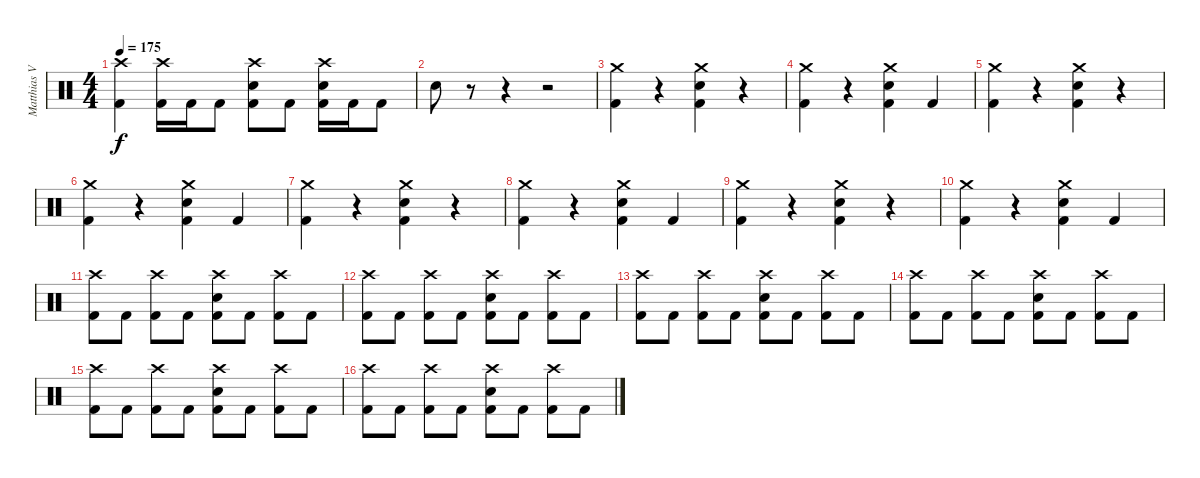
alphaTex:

\track ("Matthias Voigt" "Matthias V") {instrument percussion}
\staff {score}
\articulation defaults
\ts (4 4)
\tempo 175
\clef neutral
\ks c
("Crash high (hit)" "Kick (hit) 2").4{dy f} ("Crash high (hit)" "Kick (hit) 2").16 "Kick (hit) 2".16 "Kick (hit) 2".8 ("Crash high (hit)" "Electric Snare (hit)" "Kick (hit) 2").8 "Kick (hit) 2".8 ("Crash high (hit)" "Electric Snare (hit)" "Kick (hit) 2").16 "Kick (hit) 2".16 "Kick (hit) 2".8 |
"Electric Snare (hit)".8 r.8 r.4 r.2 |
("Crash medium (hit)" "Kick (hit) 2").4 r.4 ("Crash medium (hit)" "Electric Snare (hit)" "Kick (hit) 2").4 r.4 |
("Crash medium (hit)" "Kick (hit) 2").4 r.4 ("Crash medium (hit)" "Electric Snare (hit)" "Kick (hit) 2").4 "Kick (hit) 2".4 |
("Crash medium (hit)" "Kick (hit) 2").4 r.4 ("Crash medium (hit)" "Electric Snare (hit)" "Kick (hit) 2").4 r.4 |
("Crash medium (hit)" "Kick (hit) 2").4 r.4 ("Crash medium (hit)" "Electric Snare (hit)" "Kick (hit) 2").4 "Kick (hit) 2".4 |
("Crash medium (hit)" "Kick (hit) 2").4 r.4 ("Crash medium (hit)" "Electric Snare (hit)" "Kick (hit) 2").4 r.4 |
("Crash medium (hit)" "Kick (hit) 2").4 r.4 ("Crash medium (hit)" "Electric Snare (hit)" "Kick (hit) 2").4 "Kick (hit) 2".4 |
("Crash medium (hit)" "Kick (hit) 2").4 r.4 ("Crash medium (hit)" "Electric Snare (hit)" "Kick (hit) 2").4 r.4 |
("Crash medium (hit)" "Kick (hit) 2").4 r.4 ("Crash medium (hit)" "Electric Snare (hit)" "Kick (hit) 2").4 "Kick (hit) 2".4 |
("Crash high (hit)" "Kick (hit) 2").8 "Kick (hit) 2".8 ("Crash high (hit)" "Kick (hit) 2").8 "Kick (hit) 2".8 ("Crash high (hit)" "Electric Snare (hit)" "Kick (hit) 2").8 "Kick (hit) 2".8 ("Crash high (hit)" "Kick (hit) 2").8 "Kick (hit) 2".8 |
("Crash high (hit)" "Kick (hit) 2").8 "Kick (hit) 2".8 ("Crash high (hit)" "Kick (hit) 2").8 "Kick (hit) 2".8 ("Crash high (hit)" "Electric Snare (hit)" "Kick (hit) 2").8 "Kick (hit) 2".8 ("Crash high (hit)" "Kick (hit) 2").8 "Kick (hit) 2".8 |
("Crash high (hit)" "Kick (hit) 2").8 "Kick (hit) 2".8 ("Crash high (hit)" "Kick (hit) 2").8 "Kick (hit) 2".8 ("Crash high (hit)" "Electric Snare (hit)" "Kick (hit) 2").8 "Kick (hit) 2".8 ("Crash high (hit)" "Kick (hit) 2").8 "Kick (hit) 2".8 |
("Crash high (hit)" "Kick (hit) 2").8 "Kick (hit) 2".8 ("Crash high (hit)" "Kick (hit) 2").8 "Kick (hit) 2".8 ("Crash high (hit)" "Electric Snare (hit)" "Kick (hit) 2").8 "Kick (hit) 2".8 ("Crash high (hit)" "Kick (hit) 2").8 "Kick (hit) 2".8 |
("Crash high (hit)" "Kick (hit) 2").8 "Kick (hit) 2".8 ("Crash high (hit)" "Kick (hit) 2").8 "Kick (hit) 2".8 ("Crash high (hit)" "Electric Snare (hit)" "Kick (hit) 2").8 "Kick (hit) 2".8 ("Crash high (hit)" "Kick (hit) 2").8 "Kick (hit) 2".8 |
("Crash high (hit)" "Kick (hit) 2").8 "Kick (hit) 2".8 ("Crash high (hit)" "Kick (hit) 2").8 "Kick (hit) 2".8 ("Crash high (hit)" "Electric Snare (hit)" "Kick (hit) 2").8 "Kick (hit) 2".8 ("Crash high (hit)" "Kick (hit) 2").8 "Kick (hit) 2".8
